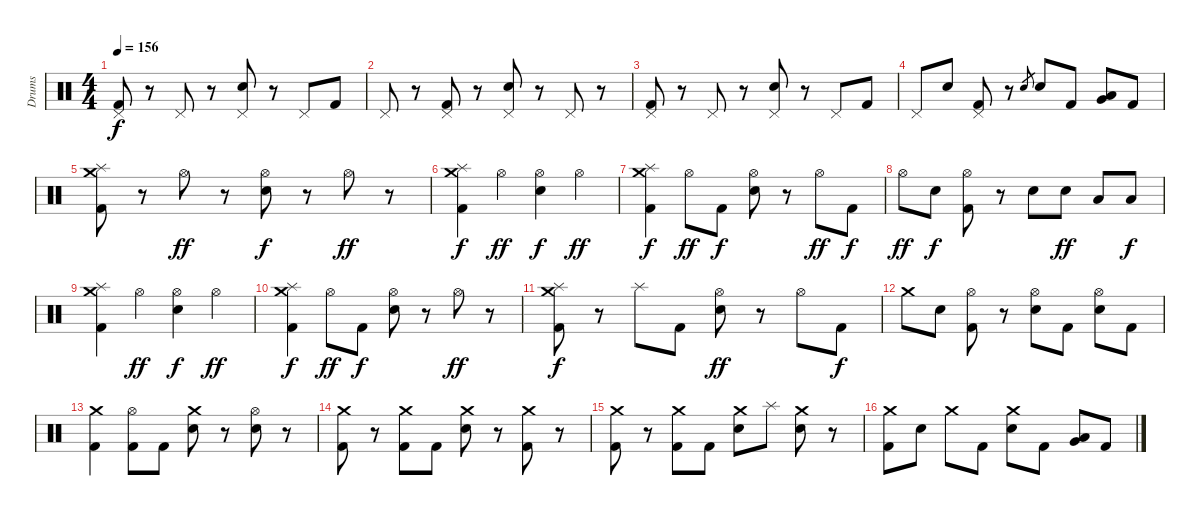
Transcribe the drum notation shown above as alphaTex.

\track ("Drums" "Drums") {instrument percussion}
\staff {score}
\articulation defaults
\ts (4 4)
\tempo 156
\clef neutral
\ks c
("Pedal Hi-Hat (hit)" "Kick (hit) 2").8{dy f} r.8 "Pedal Hi-Hat (hit)".8 r.8 ("Pedal Hi-Hat (hit)" "Electric Snare (hit)").8 r.8 "Pedal Hi-Hat (hit)".8 "Kick (hit) 2".8 |
"Pedal Hi-Hat (hit)".8 r.8 ("Pedal Hi-Hat (hit)" "Kick (hit) 2").8 r.8 ("Pedal Hi-Hat (hit)" "Electric Snare (hit)").8 r.8 "Pedal Hi-Hat (hit)".8 r.8 |
("Pedal Hi-Hat (hit)" "Kick (hit) 2").8 r.8 "Pedal Hi-Hat (hit)".8 r.8 ("Pedal Hi-Hat (hit)" "Electric Snare (hit)").8 r.8 "Pedal Hi-Hat (hit)".8 "Kick (hit) 2".8 |
"Pedal Hi-Hat (hit)".8 "Electric Snare (hit)".8 ("Pedal Hi-Hat (hit)" "Kick (hit) 2").8 r.8 "Electric Snare (hit)".8{gr} "Electric Snare (hit)".8 "Kick (hit) 2".8 ("Low Tom (hit)" "Very Low Tom (hit)").8 "Kick (hit) 2".8 |
("Splash (hit)" "Crash medium (hit)" "Kick (hit) 2").8 r.8 "Hi-Hat (open)".8{dy ff} r.8 ("Hi-Hat (open)" "Electric Snare (hit)").8{dy f} r.8 "Hi-Hat (open)".8{dy ff} r.8 |
("Crash medium (hit)" "Splash (hit)" "Kick (hit) 2").4{dy f} "Hi-Hat (open)".4{dy ff} ("Hi-Hat (open)" "Electric Snare (hit)").4{dy f} "Hi-Hat (open)".4{dy ff} |
("Crash medium (hit)" "Splash (hit)" "Kick (hit) 2").4{dy f} "Hi-Hat (open)".8{dy ff} "Kick (hit) 2".8{dy f} ("Hi-Hat (open)" "Electric Snare (hit)").8 r.8 "Hi-Hat (open)".8{dy ff} "Kick (hit) 2".8{dy f} |
"Hi-Hat (open)".8{dy ff} "Electric Snare (hit)".8{dy f} ("Hi-Hat (open)" "Kick (hit) 2").8 r.8 "Electric Snare (hit)".8 "Electric Snare (hit)".8{dy ff} "Low Tom (hit)".8 "Low Tom (hit)".8{dy f} |
("Crash medium (hit)" "Splash (hit)" "Kick (hit) 2").4 "Hi-Hat (open)".4{dy ff} ("Hi-Hat (open)" "Electric Snare (hit)").4{dy f} "Hi-Hat (open)".4{dy ff} |
("Crash medium (hit)" "Splash (hit)" "Kick (hit) 2").4{dy f} "Hi-Hat (open)".8{dy ff} "Kick (hit) 2".8{dy f} ("Hi-Hat (open)" "Electric Snare (hit)").8 r.8 "Hi-Hat (open)".8{dy ff} r.8 |
("Crash medium (hit)" "Splash (hit)" "Kick (hit) 2").8{dy f} r.8 "Splash (hit)".8 "Kick (hit) 2".8 ("Hi-Hat (open)" "Electric Snare (hit)").8{dy ff} r.8 "Hi-Hat (open)".8 "Kick (hit) 2".8{dy f} |
"Crash medium (hit)".8 "Electric Snare (hit)".8 ("Hi-Hat (open)" "Kick (hit) 2").8 r.8 ("Hi-Hat (open)" "Electric Snare (hit)").8 "Kick (hit) 2".8 ("Hi-Hat (open)" "Electric Snare (hit)").8 "Kick (hit) 2".8 |
("Crash medium (hit)" "Kick (hit) 2").4 ("Hi-Hat (open)" "Kick (hit) 2").8 "Kick (hit) 2".8 ("Crash medium (hit)" "Electric Snare (hit)").8 r.8 ("Hi-Hat (open)" "Electric Snare (hit)").8 r.8 |
("Crash medium (hit)" "Kick (hit) 2").8 r.8 ("Crash medium (hit)" "Kick (hit) 2").8 "Kick (hit) 2".8 ("Crash medium (hit)" "Electric Snare (hit)").8 r.8 ("Crash medium (hit)" "Kick (hit) 2").8 r.8 |
("Crash medium (hit)" "Kick (hit) 2").8 r.8 ("Crash medium (hit)" "Kick (hit) 2").8 "Kick (hit) 2".8 ("Crash medium (hit)" "Electric Snare (hit)").8 "Splash (hit)".8 ("Crash medium (hit)" "Electric Snare (hit)").8 r.8 |
("Crash medium (hit)" "Kick (hit) 2").8 "Electric Snare (hit)".8 "Crash medium (hit)".8 "Kick (hit) 2".8 ("Crash medium (hit)" "Electric Snare (hit)").8 "Kick (hit) 2".8 ("Low Tom (hit)" "Very Low Tom (hit)").8 "Kick (hit) 2".8
